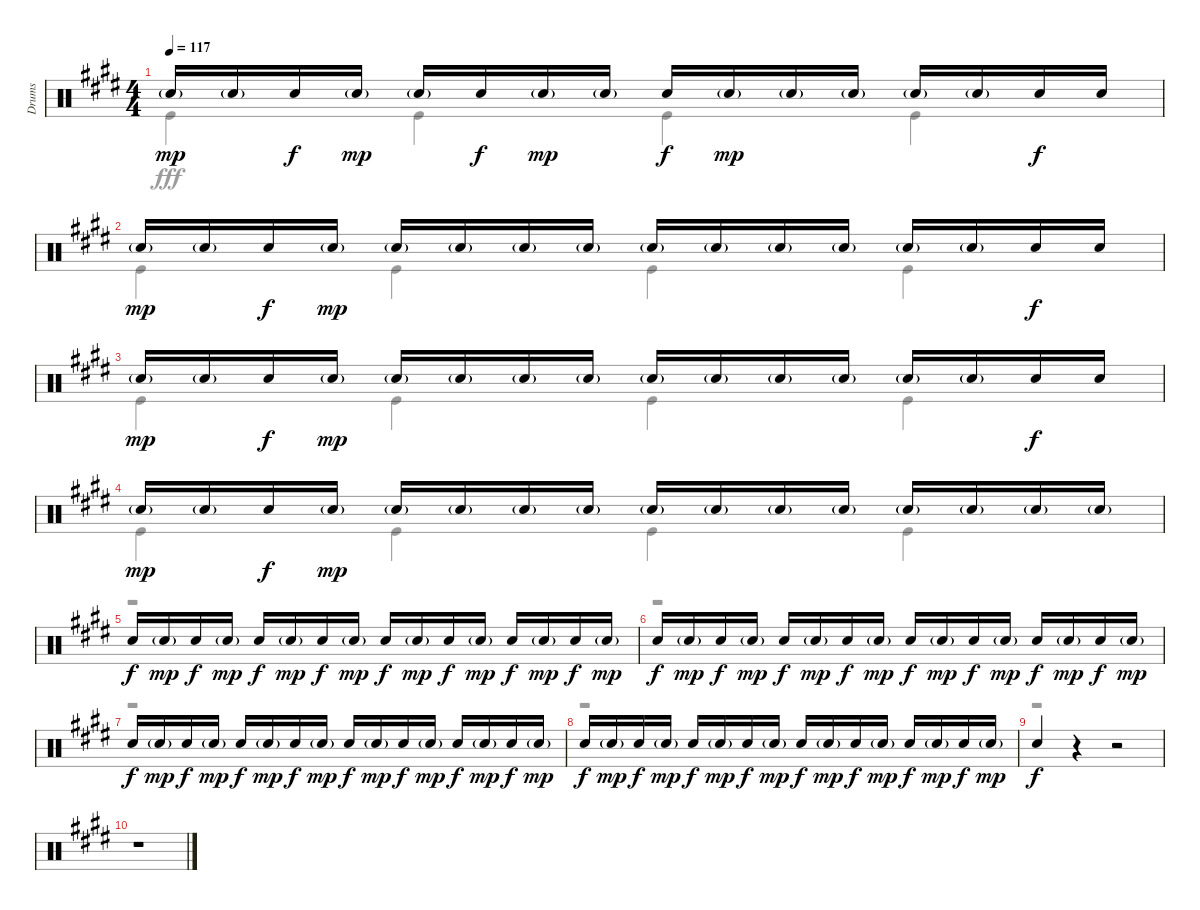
\track ("Drums" "Drums") {instrument percussion}
\staff {score}
\articulation defaults
\voice
\ts (4 4)
\tempo 117
\clef neutral
\ks e "Snare (hit) 2"{g}.16{dy mp} "Snare (hit) 2"{g}.16 "Snare (hit) 2".16{dy f} "Snare (hit) 2"{g}.16{dy mp} "Snare (hit) 2"{g}.16 "Snare (hit) 2".16{dy f} "Snare (hit) 2"{g}.16{dy mp} "Snare (hit) 2"{g}.16 "Snare (hit) 2".16{dy f} "Snare (hit) 2"{g}.16{dy mp} "Snare (hit) 2"{g}.16 "Snare (hit) 2"{g}.16 "Snare (hit) 2"{g}.16 "Snare (hit) 2"{g}.16 "Snare (hit) 2".16{dy f} "Snare (hit) 2".16
|
"Snare (hit) 2"{g}.16{dy mp} "Snare (hit) 2"{g}.16 "Snare (hit) 2".16{dy f} "Snare (hit) 2"{g}.16{dy mp} "Snare (hit) 2"{g}.16 "Snare (hit) 2"{g}.16 "Snare (hit) 2"{g}.16 "Snare (hit) 2"{g}.16 "Snare (hit) 2"{g}.16 "Snare (hit) 2"{g}.16 "Snare (hit) 2"{g}.16 "Snare (hit) 2"{g}.16 "Snare (hit) 2"{g}.16 "Snare (hit) 2"{g}.16 "Snare (hit) 2".16{dy f} "Snare (hit) 2".16 |
"Snare (hit) 2"{g}.16{dy mp} "Snare (hit) 2"{g}.16 "Snare (hit) 2".16{dy f} "Snare (hit) 2"{g}.16{dy mp} "Snare (hit) 2"{g}.16 "Snare (hit) 2"{g}.16 "Snare (hit) 2"{g}.16 "Snare (hit) 2"{g}.16 "Snare (hit) 2"{g}.16 "Snare (hit) 2"{g}.16 "Snare (hit) 2"{g}.16 "Snare (hit) 2"{g}.16 "Snare (hit) 2"{g}.16 "Snare (hit) 2"{g}.16 "Snare (hit) 2".16{dy f} "Snare (hit) 2".16 |
"Snare (hit) 2"{g}.16{dy mp} "Snare (hit) 2"{g}.16 "Snare (hit) 2".16{dy f} "Snare (hit) 2"{g}.16{dy mp} "Snare (hit) 2"{g}.16 "Snare (hit) 2"{g}.16 "Snare (hit) 2"{g}.16 "Snare (hit) 2"{g}.16 "Snare (hit) 2"{g}.16 "Snare (hit) 2"{g}.16 "Snare (hit) 2"{g}.16 "Snare (hit) 2"{g}.16 "Snare (hit) 2"{g}.16 "Snare (hit) 2"{g}.16 "Snare (hit) 2"{g}.16 "Snare (hit) 2"{g}.16 |
"Snare (hit) 2".16{dy f} "Snare (hit) 2"{g}.16{dy mp} "Snare (hit) 2".16{dy f} "Snare (hit) 2"{g}.16{dy mp} "Snare (hit) 2".16{dy f} "Snare (hit) 2"{g}.16{dy mp} "Snare (hit) 2".16{dy f} "Snare (hit) 2"{g}.16{dy mp} "Snare (hit) 2".16{dy f} "Snare (hit) 2"{g}.16{dy mp} "Snare (hit) 2".16{dy f} "Snare (hit) 2"{g}.16{dy mp} "Snare (hit) 2".16{dy f} "Snare (hit) 2"{g}.16{dy mp} "Snare (hit) 2".16{dy f} "Snare (hit) 2"{g}.16{dy mp} |
"Snare (hit) 2".16{dy f} "Snare (hit) 2"{g}.16{dy mp} "Snare (hit) 2".16{dy f} "Snare (hit) 2"{g}.16{dy mp} "Snare (hit) 2".16{dy f} "Snare (hit) 2"{g}.16{dy mp} "Snare (hit) 2".16{dy f} "Snare (hit) 2"{g}.16{dy mp} "Snare (hit) 2".16{dy f} "Snare (hit) 2"{g}.16{dy mp} "Snare (hit) 2".16{dy f} "Snare (hit) 2"{g}.16{dy mp} "Snare (hit) 2".16{dy f} "Snare (hit) 2"{g}.16{dy mp} "Snare (hit) 2".16{dy f} "Snare (hit) 2"{g}.16{dy mp} |
"Snare (hit) 2".16{dy f} "Snare (hit) 2"{g}.16{dy mp} "Snare (hit) 2".16{dy f} "Snare (hit) 2"{g}.16{dy mp} "Snare (hit) 2".16{dy f} "Snare (hit) 2"{g}.16{dy mp} "Snare (hit) 2".16{dy f} "Snare (hit) 2"{g}.16{dy mp} "Snare (hit) 2".16{dy f} "Snare (hit) 2"{g}.16{dy mp} "Snare (hit) 2".16{dy f} "Snare (hit) 2"{g}.16{dy mp} "Snare (hit) 2".16{dy f} "Snare (hit) 2"{g}.16{dy mp} "Snare (hit) 2".16{dy f} "Snare (hit) 2"{g}.16{dy mp} |
"Snare (hit) 2".16{dy f} "Snare (hit) 2"{g}.16{dy mp} "Snare (hit) 2".16{dy f} "Snare (hit) 2"{g}.16{dy mp} "Snare (hit) 2".16{dy f} "Snare (hit) 2"{g}.16{dy mp} "Snare (hit) 2".16{dy f} "Snare (hit) 2"{g}.16{dy mp} "Snare (hit) 2".16{dy f} "Snare (hit) 2"{g}.16{dy mp} "Snare (hit) 2".16{dy f} "Snare (hit) 2"{g}.16{dy mp} "Snare (hit) 2".16{dy f} "Snare (hit) 2"{g}.16{dy mp} "Snare (hit) 2".16{dy f} "Snare (hit) 2"{g}.16{dy mp} |
"Snare (hit) 2".4{dy f} r.4 r.2 |
r.1
\voice
\clef neutral
\ottava regular
\simile none
\ks e "Kick (hit)".4{dy fff} "Kick (hit)".4 "Kick (hit)".4 "Kick (hit)".4
|
"Kick (hit)".4 "Kick (hit)".4 "Kick (hit)".4 "Kick (hit)".4 |
"Kick (hit)".4 "Kick (hit)".4 "Kick (hit)".4 "Kick (hit)".4 |
"Kick (hit)".4 "Kick (hit)".4 "Kick (hit)".4 "Kick (hit)".4 |
r.1 |
r.1 |
r.1 |
r.1 |
r.1 |
r.1
